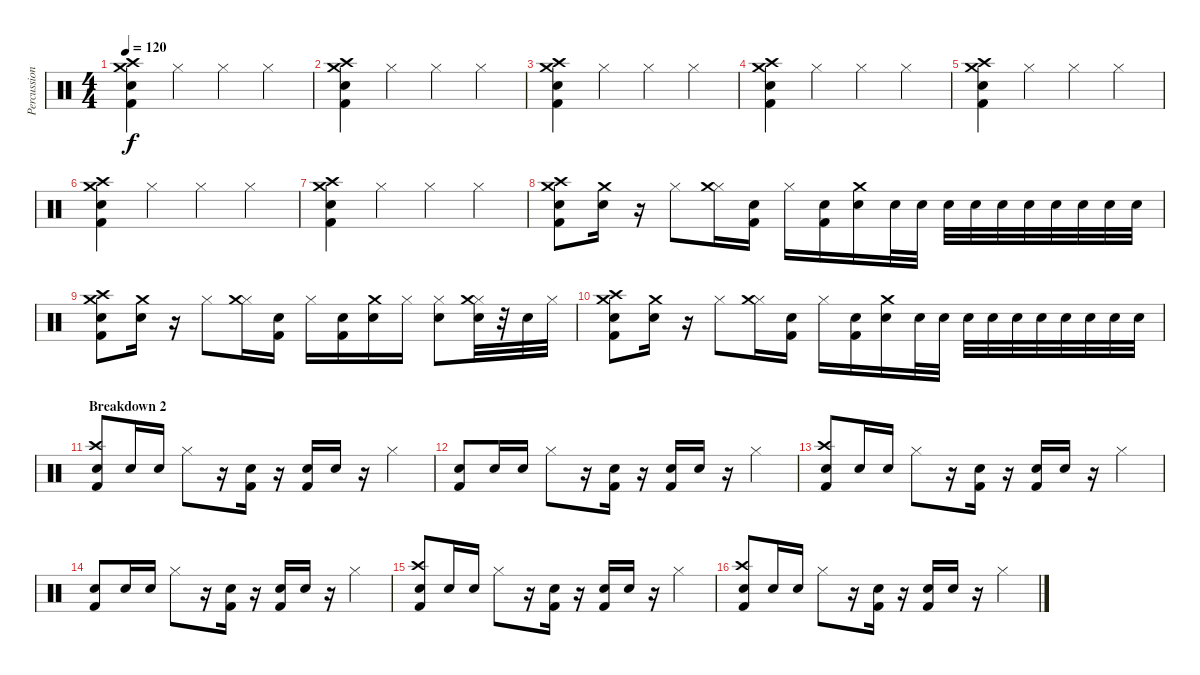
\track ("Percussion" "Percussion") {instrument percussion}
\staff {score}
\articulation defaults
\ts (4 4)
\tempo 120
\clef neutral
\ks c
("Kick (hit) 2" "Snare (hit) 2" "Crash high (hit)" "Crash medium (hit)").4{dy f} "Hi-Hat (closed)".4 "Hi-Hat (closed)".4 "Hi-Hat (closed)".4 |
("Kick (hit) 2" "Snare (hit) 2" "Crash high (hit)" "Crash medium (hit)").4 "Hi-Hat (closed)".4 "Hi-Hat (closed)".4 "Hi-Hat (closed)".4 |
("Kick (hit) 2" "Snare (hit) 2" "Crash high (hit)" "Crash medium (hit)").4 "Hi-Hat (closed)".4 "Hi-Hat (closed)".4 "Hi-Hat (closed)".4 |
("Kick (hit) 2" "Snare (hit) 2" "Crash high (hit)" "Crash medium (hit)").4 "Hi-Hat (closed)".4 "Hi-Hat (closed)".4 "Hi-Hat (closed)".4 |
("Kick (hit) 2" "Snare (hit) 2" "Crash high (hit)" "Crash medium (hit)").4 "Hi-Hat (closed)".4 "Hi-Hat (closed)".4 "Hi-Hat (closed)".4 |
("Kick (hit) 2" "Snare (hit) 2" "Crash high (hit)" "Crash medium (hit)").4 "Hi-Hat (closed)".4 "Hi-Hat (closed)".4 "Hi-Hat (closed)".4 |
("Kick (hit) 2" "Snare (hit) 2" "Crash high (hit)" "Crash medium (hit)").4 "Hi-Hat (closed)".4 "Hi-Hat (closed)".4 "Hi-Hat (closed)".4 |
("Kick (hit) 2" "Snare (hit) 2" "Crash high (hit)" "Crash medium (hit)").8 ("Snare (hit) 2" "Crash medium (hit)").16 r.16 "Hi-Hat (closed)".8 ("Hi-Hat (closed)" "Crash medium (hit)").16 ("Kick (hit) 2" "Snare (hit) 2").16 "Hi-Hat (closed)".16 ("Kick (hit) 2" "Snare (hit) 2").16 ("Snare (hit) 2" "Crash medium (hit)").16 "Snare (hit) 2".32 "Snare (hit) 2".32 "Snare (hit) 2".32 "Snare (hit) 2".32 "Snare (hit) 2".32 "Snare (hit) 2".32 "Snare (hit) 2".32 "Snare (hit) 2".32 "Snare (hit) 2".32 "Snare (hit) 2".32 |
("Kick (hit) 2" "Snare (hit) 2" "Crash high (hit)" "Crash medium (hit)").8 ("Snare (hit) 2" "Crash medium (hit)").16 r.16 "Hi-Hat (closed)".8 ("Hi-Hat (closed)" "Crash medium (hit)").16 ("Kick (hit) 2" "Snare (hit) 2").16 "Hi-Hat (closed)".16 ("Kick (hit) 2" "Snare (hit) 2").16 ("Snare (hit) 2" "Crash medium (hit)").16 "Hi-Hat (closed)".16 ("Hi-Hat (closed)" "Snare (hit) 2").8 ("Snare (hit) 2" "Hi-Hat (closed)" "Crash medium (hit)").32 r.32 "Snare (hit) 2".32 "Hi-Hat (closed)".32 |
("Kick (hit) 2" "Snare (hit) 2" "Crash high (hit)" "Crash medium (hit)").8 ("Snare (hit) 2" "Crash medium (hit)").16 r.16 "Hi-Hat (closed)".8 ("Hi-Hat (closed)" "Crash medium (hit)").16 ("Kick (hit) 2" "Snare (hit) 2").16 "Hi-Hat (closed)".16 ("Kick (hit) 2" "Snare (hit) 2").16 ("Snare (hit) 2" "Crash medium (hit)").16 "Snare (hit) 2".32 "Snare (hit) 2".32 "Snare (hit) 2".32 "Snare (hit) 2".32 "Snare (hit) 2".32 "Snare (hit) 2".32 "Snare (hit) 2".32 "Snare (hit) 2".32 "Snare (hit) 2".32 "Snare (hit) 2".32 |
\section ("" "Breakdown 2")
("Kick (hit) 2" "Electric Snare (hit)" "Crash high (hit)").8 "Electric Snare (hit)".16 "Electric Snare (hit)".16 "Hi-Hat (closed)".8 r.16 ("Kick (hit) 2" "Electric Snare (hit)").16 r.16 ("Kick (hit) 2" "Electric Snare (hit)").16 "Electric Snare (hit)".16 r.16 "Hi-Hat (closed)".4 |
("Kick (hit) 2" "Electric Snare (hit)").8 "Electric Snare (hit)".16 "Electric Snare (hit)".16 "Hi-Hat (closed)".8 r.16 ("Kick (hit) 2" "Electric Snare (hit)").16 r.16 ("Kick (hit) 2" "Electric Snare (hit)").16 "Electric Snare (hit)".16 r.16 "Hi-Hat (closed)".4 |
("Kick (hit) 2" "Electric Snare (hit)" "Crash high (hit)").8 "Electric Snare (hit)".16 "Electric Snare (hit)".16 "Hi-Hat (closed)".8 r.16 ("Kick (hit) 2" "Electric Snare (hit)").16 r.16 ("Kick (hit) 2" "Electric Snare (hit)").16 "Electric Snare (hit)".16 r.16 "Hi-Hat (closed)".4 |
("Kick (hit) 2" "Electric Snare (hit)").8 "Electric Snare (hit)".16 "Electric Snare (hit)".16 "Hi-Hat (closed)".8 r.16 ("Kick (hit) 2" "Electric Snare (hit)").16 r.16 ("Kick (hit) 2" "Electric Snare (hit)").16 "Electric Snare (hit)".16 r.16 "Hi-Hat (closed)".4 |
("Kick (hit) 2" "Electric Snare (hit)" "Crash high (hit)").8 "Electric Snare (hit)".16 "Electric Snare (hit)".16 "Hi-Hat (closed)".8 r.16 ("Kick (hit) 2" "Electric Snare (hit)").16 r.16 ("Kick (hit) 2" "Electric Snare (hit)").16 "Electric Snare (hit)".16 r.16 "Hi-Hat (closed)".4 |
("Kick (hit) 2" "Electric Snare (hit)" "Crash high (hit)").8 "Electric Snare (hit)".16 "Electric Snare (hit)".16 "Hi-Hat (closed)".8 r.16 ("Kick (hit) 2" "Electric Snare (hit)").16 r.16 ("Kick (hit) 2" "Electric Snare (hit)").16 "Electric Snare (hit)".16 r.16 "Hi-Hat (closed)".4
